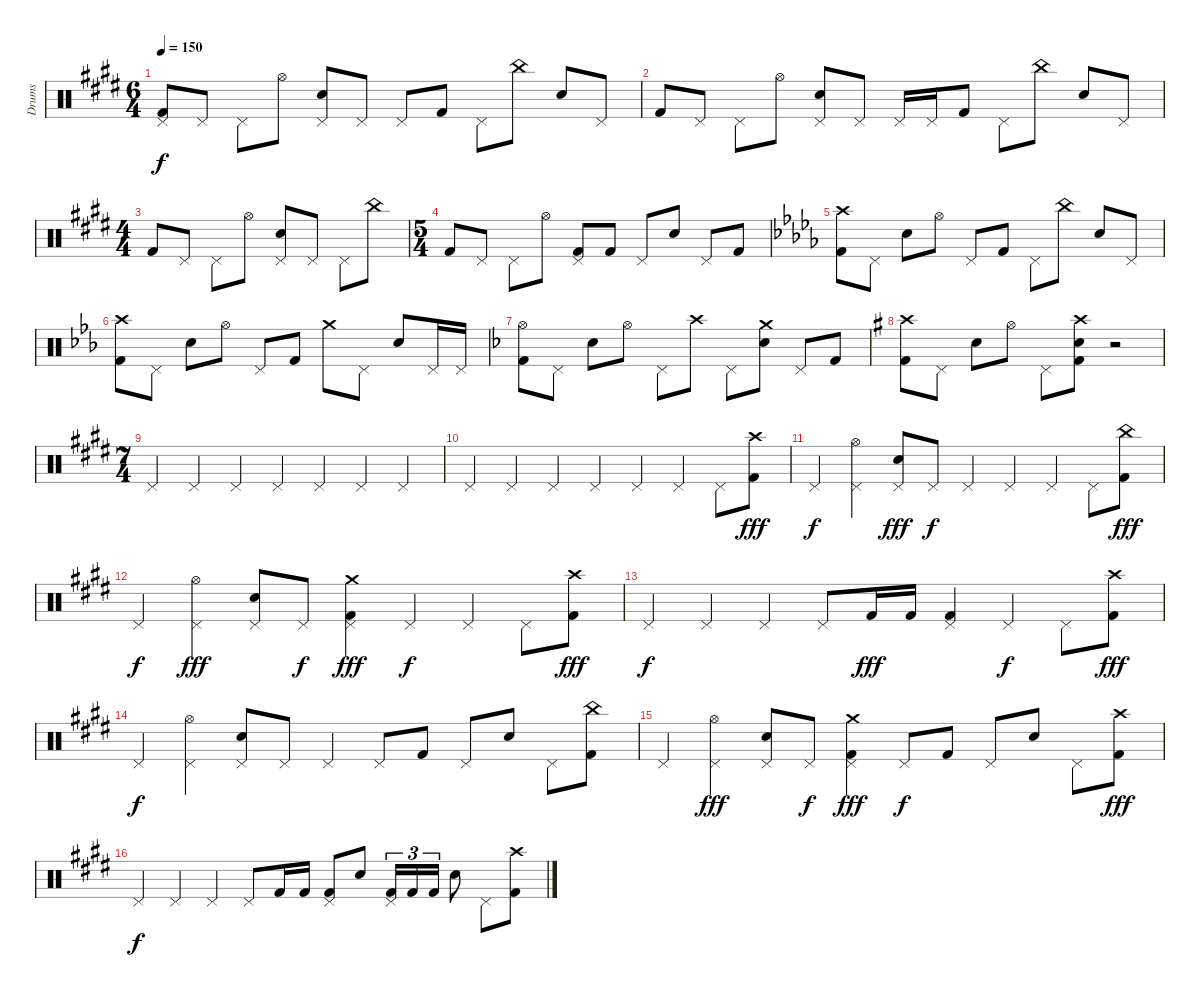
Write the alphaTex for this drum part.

\track ("Drums" "Drums") {instrument percussion}
\staff {score}
\articulation defaults
\ts (6 4)
\tempo 150
\clef neutral
\ks e
("Pedal Hi-Hat (hit)" "Kick (hit) 2").8{dy f} "Pedal Hi-Hat (hit)".8 "Pedal Hi-Hat (hit)".8 "Hi-Hat (open)".8 ("Pedal Hi-Hat (hit)" "Electric Snare (hit)").8 "Pedal Hi-Hat (hit)".8 "Pedal Hi-Hat (hit)".8 "Kick (hit) 2".8 "Pedal Hi-Hat (hit)".8 "China (hit)".8 "Electric Snare (hit)".8 "Pedal Hi-Hat (hit)".8 |
"Kick (hit) 2".8 "Pedal Hi-Hat (hit)".8 "Pedal Hi-Hat (hit)".8 "Hi-Hat (open)".8 ("Pedal Hi-Hat (hit)" "Electric Snare (hit)").8 "Pedal Hi-Hat (hit)".8 "Pedal Hi-Hat (hit)".16 "Pedal Hi-Hat (hit)".16 "Kick (hit) 2".8 "Pedal Hi-Hat (hit)".8 "China (hit)".8 "Electric Snare (hit)".8 "Pedal Hi-Hat (hit)".8 |
\ts (4 4)
"Kick (hit) 2".8 "Pedal Hi-Hat (hit)".8 "Pedal Hi-Hat (hit)".8 "Hi-Hat (open)".8 ("Pedal Hi-Hat (hit)" "Electric Snare (hit)").8 "Pedal Hi-Hat (hit)".8 "Pedal Hi-Hat (hit)".8 "China (hit)".8 |
\ts (5 4)
"Kick (hit) 2".8 "Pedal Hi-Hat (hit)".8 "Pedal Hi-Hat (hit)".8 "Hi-Hat (open)".8 ("Pedal Hi-Hat (hit)" "Kick (hit) 2").8 "Kick (hit) 2".8 "Pedal Hi-Hat (hit)".8 "Electric Snare (hit)".8 "Pedal Hi-Hat (hit)".8 "Kick (hit) 2".8 |
\ks db
("Crash high (hit)" "Kick (hit) 2").8 "Pedal Hi-Hat (hit)".8 "Electric Snare (hit)".8 "Hi-Hat (open)".8 "Pedal Hi-Hat (hit)".8 "Kick (hit) 2".8 "Pedal Hi-Hat (hit)".8 "China (hit)".8 "Electric Snare (hit)".8 "Pedal Hi-Hat (hit)".8 |
\ks eb
("Crash high (hit)" "Kick (hit) 2").8 "Pedal Hi-Hat (hit)".8 "Electric Snare (hit)".8 "Hi-Hat (open)".8 "Pedal Hi-Hat (hit)".8 "Kick (hit) 2".8 "Crash medium (hit)".8 "Pedal Hi-Hat (hit)".8 "Electric Snare (hit)".8 "Pedal Hi-Hat (hit)".16 "Pedal Hi-Hat (hit)".16 |
\ks f
("Hi-Hat (open)" "Kick (hit) 2").8 "Pedal Hi-Hat (hit)".8 "Electric Snare (hit)".8 "Hi-Hat (open)".8 "Pedal Hi-Hat (hit)".8 "Crash high (hit)".8 "Pedal Hi-Hat (hit)".8 ("Crash medium (hit)" "Electric Snare (hit)").8 "Pedal Hi-Hat (hit)".8 "Kick (hit) 2".8 |
\ks g
("Crash high (hit)" "Kick (hit) 2").8 "Pedal Hi-Hat (hit)".8 "Electric Snare (hit)".8 "Hi-Hat (open)".8 "Pedal Hi-Hat (hit)".8 ("Crash high (hit)" "Kick (hit) 2" "Electric Snare (hit)").8 r.2 |
\ts (7 4)
\section ("" "")
\ks e "Pedal Hi-Hat (hit)".4{volume 16} "Pedal Hi-Hat (hit)".4 "Pedal Hi-Hat (hit)".4 "Pedal Hi-Hat (hit)".4 "Pedal Hi-Hat (hit)".4 "Pedal Hi-Hat (hit)".4 "Pedal Hi-Hat (hit)".4
|
"Pedal Hi-Hat (hit)".4 "Pedal Hi-Hat (hit)".4 "Pedal Hi-Hat (hit)".4 "Pedal Hi-Hat (hit)".4 "Pedal Hi-Hat (hit)".4 "Pedal Hi-Hat (hit)".4 "Pedal Hi-Hat (hit)".8 ("Crash high (hit)" "Kick (hit) 2").8{dy fff} |
"Pedal Hi-Hat (hit)".4{dy f} ("Pedal Hi-Hat (hit)" "Hi-Hat (open)").4 ("Pedal Hi-Hat (hit)" "Electric Snare (hit)").8{dy fff} "Pedal Hi-Hat (hit)".8{dy f} "Pedal Hi-Hat (hit)".4 "Pedal Hi-Hat (hit)".4 "Pedal Hi-Hat (hit)".4 "Pedal Hi-Hat (hit)".8 ("China (hit)" "Kick (hit) 2").8{dy fff} |
"Pedal Hi-Hat (hit)".4{dy f} ("Pedal Hi-Hat (hit)" "Hi-Hat (open)").4{dy fff} ("Pedal Hi-Hat (hit)" "Electric Snare (hit)").8 "Pedal Hi-Hat (hit)".8{dy f} ("Pedal Hi-Hat (hit)" "Crash medium (hit)" "Kick (hit) 2").4{dy fff} "Pedal Hi-Hat (hit)".4{dy f} "Pedal Hi-Hat (hit)".4 "Pedal Hi-Hat (hit)".8 ("Crash high (hit)" "Kick (hit) 2").8{dy fff} |
"Pedal Hi-Hat (hit)".4{dy f} "Pedal Hi-Hat (hit)".4 "Pedal Hi-Hat (hit)".4 "Pedal Hi-Hat (hit)".8 "Kick (hit) 2".16{dy fff} "Kick (hit) 2".16 ("Pedal Hi-Hat (hit)" "Kick (hit) 2").4 "Pedal Hi-Hat (hit)".4{dy f} "Pedal Hi-Hat (hit)".8 ("Crash high (hit)" "Kick (hit) 2").8{dy fff} |
"Pedal Hi-Hat (hit)".4{dy f} ("Pedal Hi-Hat (hit)" "Hi-Hat (open)").4 ("Pedal Hi-Hat (hit)" "Electric Snare (hit)").8 "Pedal Hi-Hat (hit)".8 "Pedal Hi-Hat (hit)".4 "Pedal Hi-Hat (hit)".8 "Kick (hit) 2".8 "Pedal Hi-Hat (hit)".8 "Electric Snare (hit)".8 "Pedal Hi-Hat (hit)".8 ("China (hit)" "Kick (hit) 2").8 |
"Pedal Hi-Hat (hit)".4 ("Pedal Hi-Hat (hit)" "Hi-Hat (open)").4{dy fff} ("Pedal Hi-Hat (hit)" "Electric Snare (hit)").8 "Pedal Hi-Hat (hit)".8{dy f} ("Pedal Hi-Hat (hit)" "Crash medium (hit)" "Kick (hit) 2").4{dy fff} "Pedal Hi-Hat (hit)".8{dy f} "Kick (hit) 2".8 "Pedal Hi-Hat (hit)".8 "Electric Snare (hit)".8 "Pedal Hi-Hat (hit)".8 ("Crash high (hit)" "Kick (hit) 2").8{dy fff} |
"Pedal Hi-Hat (hit)".4{dy f} "Pedal Hi-Hat (hit)".4 "Pedal Hi-Hat (hit)".4 "Pedal Hi-Hat (hit)".8 "Kick (hit) 2".16 "Kick (hit) 2".16 ("Pedal Hi-Hat (hit)" "Kick (hit) 2").8 "Electric Snare (hit)".8 ("Pedal Hi-Hat (hit)" "Kick (hit) 2").16{tu (3 2)} "Kick (hit) 2".16{tu (3 2)} "Kick (hit) 2".16{tu (3 2)} "Electric Snare (hit)".8 "Pedal Hi-Hat (hit)".8 ("Crash high (hit)" "Kick (hit) 2").8
